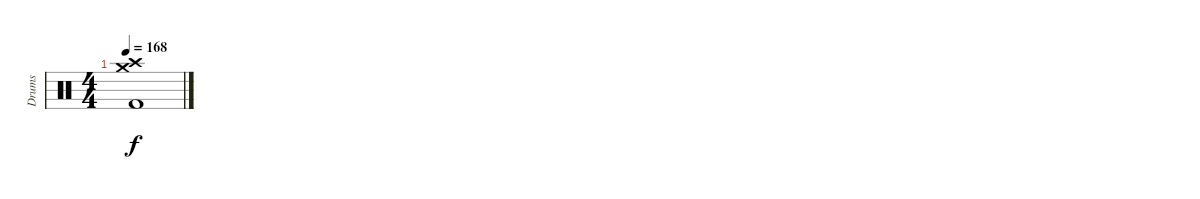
\track ("Drums" "Drums") {instrument percussion}
\staff {score}
\articulation defaults
\ts (4 4)
\tempo 168
\clef neutral
\ks c
("Crash high (hit)" "Crash medium (hit)" "Kick (hit) 2").1{dy f}
